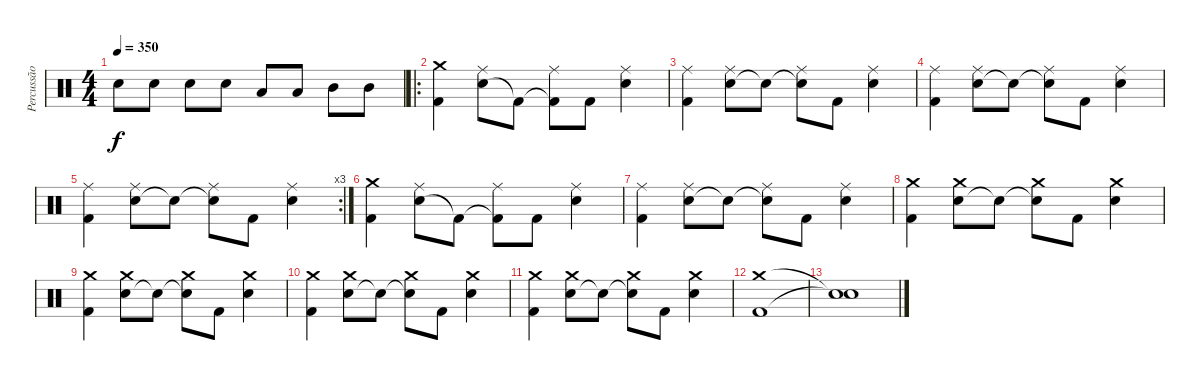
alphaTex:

\track ("Percussão" "Percussão") {instrument percussion}
\staff {score}
\articulation defaults
\ts (4 4)
\tempo 350
\clef neutral
\ks c "Electric Snare (hit)".8{dy f} "Electric Snare (hit)".8 "Electric Snare (hit)".8 "Electric Snare (hit)".8 "Low Tom (hit)".8 "Low Tom (hit)".8 "Mid Tom (hit)".8 "Mid Tom (hit)".8
|
\ro
("Kick (hit) 2" "Crash medium (hit)").4 ("Electric Snare (hit)" "Ride (middle)").8 "Kick (hit) 2"{t}.8 ("Kick (hit) 2"{t} "Ride (middle)").8 "Kick (hit) 2".8 ("Electric Snare (hit)" "Ride (middle)").4 |
("Kick (hit) 2" "Ride (middle)").4 ("Electric Snare (hit)" "Ride (middle)").8 "Snare (hit)"{t}.8 ("Snare (hit)"{t} "Ride (middle)").8 "Kick (hit) 2".8 ("Electric Snare (hit)" "Ride (middle)").4 |
("Kick (hit) 2" "Ride (middle)").4 ("Electric Snare (hit)" "Ride (middle)").8 "Snare (hit)"{t}.8 ("Snare (hit)"{t} "Ride (middle)").8 "Kick (hit) 2".8 ("Electric Snare (hit)" "Ride (middle)").4 |
\rc 3
("Kick (hit) 2" "Ride (middle)").4 ("Electric Snare (hit)" "Ride (middle)").8 "Snare (hit)"{t}.8 ("Snare (hit)"{t} "Ride (middle)").8 "Kick (hit) 2".8 ("Electric Snare (hit)" "Ride (middle)").4 |
("Kick (hit) 2" "Crash medium (hit)").4 ("Electric Snare (hit)" "Ride (middle)").8 "Kick (hit) 2"{t}.8 ("Kick (hit) 2"{t} "Ride (middle)").8 "Kick (hit) 2".8 ("Electric Snare (hit)" "Ride (middle)").4 |
("Kick (hit) 2" "Ride (middle)").4 ("Electric Snare (hit)" "Ride (middle)").8 "Snare (hit)"{t}.8 ("Snare (hit)"{t} "Ride (middle)").8 "Kick (hit) 2".8 ("Electric Snare (hit)" "Ride (middle)").4 |
("Kick (hit) 2" "Crash medium (hit)").4 ("Electric Snare (hit)" "Crash medium (hit)").8 "Snare (hit)"{t}.8 ("Snare (hit)"{t} "Crash medium (hit)").8 "Kick (hit) 2".8 ("Electric Snare (hit)" "Crash medium (hit)").4 |
("Kick (hit) 2" "Crash medium (hit)").4 ("Electric Snare (hit)" "Crash medium (hit)").8 "Snare (hit)"{t}.8 ("Snare (hit)"{t} "Crash medium (hit)").8 "Kick (hit) 2".8 ("Electric Snare (hit)" "Crash medium (hit)").4 |
("Kick (hit) 2" "Crash medium (hit)").4 ("Electric Snare (hit)" "Crash medium (hit)").8 "Snare (hit)"{t}.8 ("Snare (hit)"{t} "Crash medium (hit)").8 "Kick (hit) 2".8 ("Electric Snare (hit)" "Crash medium (hit)").4 |
("Kick (hit) 2" "Crash medium (hit)").4 ("Electric Snare (hit)" "Crash medium (hit)").8 "Snare (hit)"{t}.8 ("Snare (hit)"{t} "Crash medium (hit)").8 "Kick (hit) 2".8 ("Electric Snare (hit)" "Crash medium (hit)").4 |
("Crash medium (hit)" "Kick (hit) 2").1 |
("Snare (hit)"{t} "Snare (hit)"{t}).1
